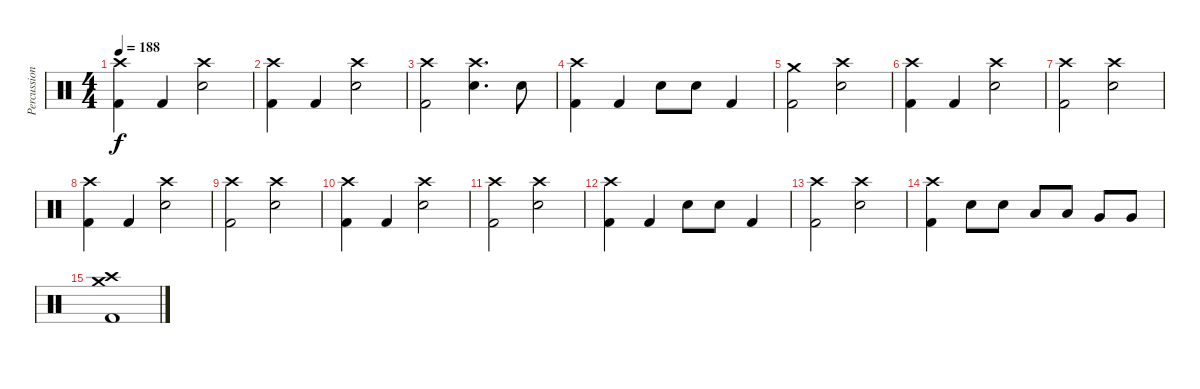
\track ("Percussion" "Percussion") {instrument percussion}
\staff {score}
\articulation defaults
\ts (4 4)
\tempo 188
\clef neutral
\ks c
("Crash high (hit)" "Kick (hit) 2").4{dy f} "Kick (hit) 2".4 ("Crash high (hit)" "Snare (hit) 2").2 |
("Crash high (hit)" "Kick (hit) 2").4 "Kick (hit) 2".4 ("Crash high (hit)" "Snare (hit) 2").2 |
("Crash high (hit)" "Kick (hit) 2").2 ("Crash high (hit)" "Snare (hit) 2").4{d} "Snare (hit) 2".8 |
("Crash high (hit)" "Kick (hit) 2").4 "Kick (hit) 2".4 "Snare (hit) 2".8 "Snare (hit) 2".8 "Kick (hit) 2".4 |
("Crash medium (hit)" "Kick (hit) 2").2 ("Crash high (hit)" "Snare (hit) 2").2 |
("Crash high (hit)" "Kick (hit) 2").4 "Kick (hit) 2".4 ("Crash high (hit)" "Snare (hit) 2").2 |
("Crash high (hit)" "Kick (hit) 2").2 ("Crash high (hit)" "Snare (hit) 2").2 |
("Crash high (hit)" "Kick (hit) 2").4 "Kick (hit) 2".4 ("Crash high (hit)" "Snare (hit) 2").2 |
("Crash high (hit)" "Kick (hit) 2").2 ("Crash high (hit)" "Snare (hit) 2").2 |
("Crash high (hit)" "Kick (hit) 2").4 "Kick (hit) 2".4 ("Crash high (hit)" "Snare (hit) 2").2 |
("Crash high (hit)" "Kick (hit) 2").2 ("Crash high (hit)" "Snare (hit) 2").2 |
("Crash high (hit)" "Kick (hit) 2").4 "Kick (hit) 2".4 "Snare (hit) 2".8 "Snare (hit) 2".8 "Kick (hit) 2".4 |
("Crash high (hit)" "Kick (hit) 2").2 ("Crash high (hit)" "Snare (hit) 2").2 |
("Crash high (hit)" "Kick (hit) 2").4 "Snare (hit) 2".8 "Snare (hit) 2".8 "Low Tom (hit)".8 "Low Tom (hit)".8 "Very Low Tom (hit)".8 "Very Low Tom (hit)".8 |
("Crash high (hit)" "Kick (hit) 2" "Crash medium (hit)").1
